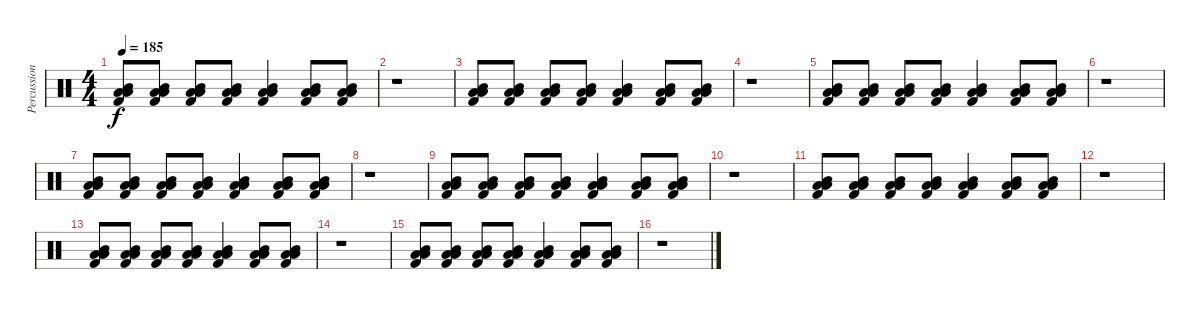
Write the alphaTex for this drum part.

\track ("Percussion" "Percussion") {instrument percussion}
\staff {score}
\articulation defaults
\ts (4 4)
\tempo 185
\clef neutral
\ks c
("Low Floor Tom (hit)" "Mid Tom (hit)" "Low Tom (hit)" "Kick (hit) 2").8{dy f} ("Low Floor Tom (hit)" "Mid Tom (hit)" "Low Tom (hit)" "Kick (hit) 2").8 ("Low Floor Tom (hit)" "Mid Tom (hit)" "Low Tom (hit)" "Kick (hit) 2").8 ("Low Floor Tom (hit)" "Mid Tom (hit)" "Low Tom (hit)" "Kick (hit) 2").8 ("Low Floor Tom (hit)" "Mid Tom (hit)" "Low Tom (hit)" "Kick (hit) 2").4 ("Low Floor Tom (hit)" "Mid Tom (hit)" "Low Tom (hit)" "Kick (hit) 2").8 ("Low Floor Tom (hit)" "Mid Tom (hit)" "Low Tom (hit)" "Kick (hit) 2").8 |
r.1 |
("Low Floor Tom (hit)" "Mid Tom (hit)" "Low Tom (hit)" "Kick (hit) 2").8 ("Low Floor Tom (hit)" "Mid Tom (hit)" "Low Tom (hit)" "Kick (hit) 2").8 ("Low Floor Tom (hit)" "Mid Tom (hit)" "Low Tom (hit)" "Kick (hit) 2").8 ("Low Floor Tom (hit)" "Mid Tom (hit)" "Low Tom (hit)" "Kick (hit) 2").8 ("Low Floor Tom (hit)" "Mid Tom (hit)" "Low Tom (hit)" "Kick (hit) 2").4 ("Low Floor Tom (hit)" "Mid Tom (hit)" "Low Tom (hit)" "Kick (hit) 2").8 ("Low Floor Tom (hit)" "Mid Tom (hit)" "Low Tom (hit)" "Kick (hit) 2").8 |
r.1 |
("Low Floor Tom (hit)" "Mid Tom (hit)" "Low Tom (hit)" "Kick (hit) 2").8 ("Low Floor Tom (hit)" "Mid Tom (hit)" "Low Tom (hit)" "Kick (hit) 2").8 ("Low Floor Tom (hit)" "Mid Tom (hit)" "Low Tom (hit)" "Kick (hit) 2").8 ("Low Floor Tom (hit)" "Mid Tom (hit)" "Low Tom (hit)" "Kick (hit) 2").8 ("Low Floor Tom (hit)" "Mid Tom (hit)" "Low Tom (hit)" "Kick (hit) 2").4 ("Low Floor Tom (hit)" "Mid Tom (hit)" "Low Tom (hit)" "Kick (hit) 2").8 ("Low Floor Tom (hit)" "Mid Tom (hit)" "Low Tom (hit)" "Kick (hit) 2").8 |
r.1 |
("Low Floor Tom (hit)" "Mid Tom (hit)" "Low Tom (hit)" "Kick (hit) 2").8 ("Low Floor Tom (hit)" "Mid Tom (hit)" "Low Tom (hit)" "Kick (hit) 2").8 ("Low Floor Tom (hit)" "Mid Tom (hit)" "Low Tom (hit)" "Kick (hit) 2").8 ("Low Floor Tom (hit)" "Mid Tom (hit)" "Low Tom (hit)" "Kick (hit) 2").8 ("Low Floor Tom (hit)" "Mid Tom (hit)" "Low Tom (hit)" "Kick (hit) 2").4 ("Low Floor Tom (hit)" "Mid Tom (hit)" "Low Tom (hit)" "Kick (hit) 2").8 ("Low Floor Tom (hit)" "Mid Tom (hit)" "Low Tom (hit)" "Kick (hit) 2").8 |
r.1 |
("Low Floor Tom (hit)" "Mid Tom (hit)" "Low Tom (hit)" "Kick (hit) 2").8 ("Low Floor Tom (hit)" "Mid Tom (hit)" "Low Tom (hit)" "Kick (hit) 2").8 ("Low Floor Tom (hit)" "Mid Tom (hit)" "Low Tom (hit)" "Kick (hit) 2").8 ("Low Floor Tom (hit)" "Mid Tom (hit)" "Low Tom (hit)" "Kick (hit) 2").8 ("Low Floor Tom (hit)" "Mid Tom (hit)" "Low Tom (hit)" "Kick (hit) 2").4 ("Low Floor Tom (hit)" "Mid Tom (hit)" "Low Tom (hit)" "Kick (hit) 2").8 ("Low Floor Tom (hit)" "Mid Tom (hit)" "Low Tom (hit)" "Kick (hit) 2").8 |
r.1 |
("Low Floor Tom (hit)" "Mid Tom (hit)" "Low Tom (hit)" "Kick (hit) 2").8 ("Low Floor Tom (hit)" "Mid Tom (hit)" "Low Tom (hit)" "Kick (hit) 2").8 ("Low Floor Tom (hit)" "Mid Tom (hit)" "Low Tom (hit)" "Kick (hit) 2").8 ("Low Floor Tom (hit)" "Mid Tom (hit)" "Low Tom (hit)" "Kick (hit) 2").8 ("Low Floor Tom (hit)" "Mid Tom (hit)" "Low Tom (hit)" "Kick (hit) 2").4 ("Low Floor Tom (hit)" "Mid Tom (hit)" "Low Tom (hit)" "Kick (hit) 2").8 ("Low Floor Tom (hit)" "Mid Tom (hit)" "Low Tom (hit)" "Kick (hit) 2").8 |
r.1 |
("Low Floor Tom (hit)" "Mid Tom (hit)" "Low Tom (hit)" "Kick (hit) 2").8 ("Low Floor Tom (hit)" "Mid Tom (hit)" "Low Tom (hit)" "Kick (hit) 2").8 ("Low Floor Tom (hit)" "Mid Tom (hit)" "Low Tom (hit)" "Kick (hit) 2").8 ("Low Floor Tom (hit)" "Mid Tom (hit)" "Low Tom (hit)" "Kick (hit) 2").8 ("Low Floor Tom (hit)" "Mid Tom (hit)" "Low Tom (hit)" "Kick (hit) 2").4 ("Low Floor Tom (hit)" "Mid Tom (hit)" "Low Tom (hit)" "Kick (hit) 2").8 ("Low Floor Tom (hit)" "Mid Tom (hit)" "Low Tom (hit)" "Kick (hit) 2").8 |
r.1 |
("Low Floor Tom (hit)" "Mid Tom (hit)" "Low Tom (hit)" "Kick (hit) 2").8 ("Low Floor Tom (hit)" "Mid Tom (hit)" "Low Tom (hit)" "Kick (hit) 2").8 ("Low Floor Tom (hit)" "Mid Tom (hit)" "Low Tom (hit)" "Kick (hit) 2").8 ("Low Floor Tom (hit)" "Mid Tom (hit)" "Low Tom (hit)" "Kick (hit) 2").8 ("Low Floor Tom (hit)" "Mid Tom (hit)" "Low Tom (hit)" "Kick (hit) 2").4 ("Low Floor Tom (hit)" "Mid Tom (hit)" "Low Tom (hit)" "Kick (hit) 2").8 ("Low Floor Tom (hit)" "Mid Tom (hit)" "Low Tom (hit)" "Kick (hit) 2").8 |
r.1
